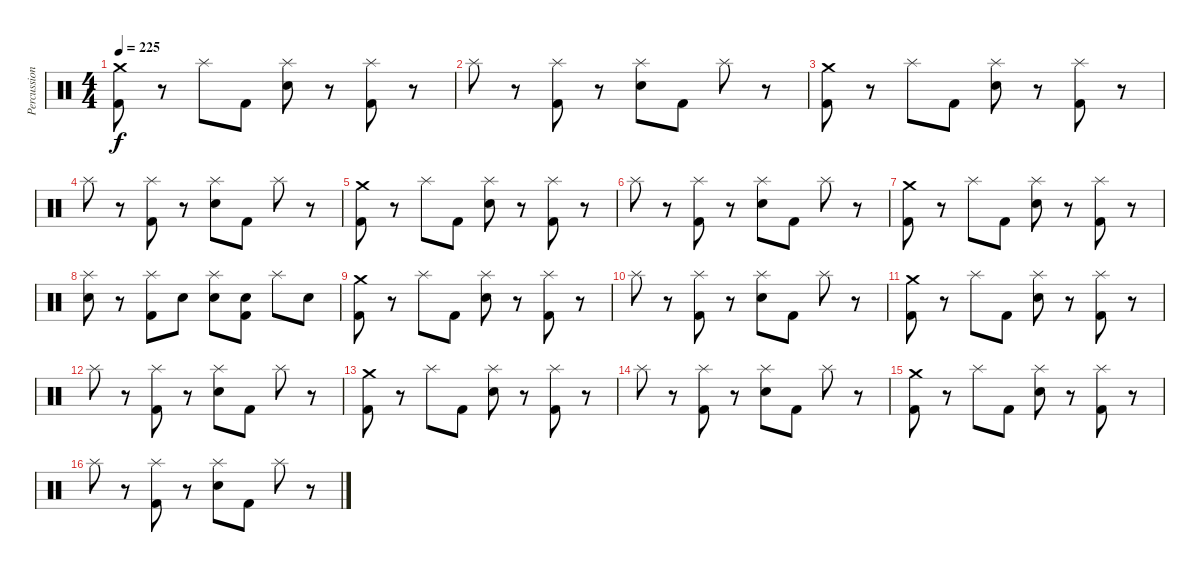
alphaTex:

\track ("Percussion" "Percussion") {instrument percussion}
\staff {score}
\articulation defaults
\ts (4 4)
\tempo 225
\clef neutral
\ks c
("Crash medium (hit)" "Kick (hit) 2").8{dy f} r.8 "Splash (hit)".8 "Kick (hit) 2".8 ("Splash (hit)" "Electric Snare (hit)").8 r.8 ("Splash (hit)" "Kick (hit) 2").8 r.8 |
"Splash (hit)".8 r.8 ("Splash (hit)" "Kick (hit) 2").8 r.8 ("Splash (hit)" "Electric Snare (hit)").8 "Kick (hit) 2".8 "Splash (hit)".8 r.8 |
("Crash medium (hit)" "Kick (hit) 2").8 r.8 "Splash (hit)".8 "Kick (hit) 2".8 ("Splash (hit)" "Electric Snare (hit)").8 r.8 ("Splash (hit)" "Kick (hit) 2").8 r.8 |
"Splash (hit)".8 r.8 ("Splash (hit)" "Kick (hit) 2").8 r.8 ("Splash (hit)" "Electric Snare (hit)").8 "Kick (hit) 2".8 "Splash (hit)".8 r.8 |
("Crash medium (hit)" "Kick (hit) 2").8 r.8 "Splash (hit)".8 "Kick (hit) 2".8 ("Splash (hit)" "Electric Snare (hit)").8 r.8 ("Splash (hit)" "Kick (hit) 2").8 r.8 |
"Splash (hit)".8 r.8 ("Splash (hit)" "Kick (hit) 2").8 r.8 ("Splash (hit)" "Electric Snare (hit)").8 "Kick (hit) 2".8 "Splash (hit)".8 r.8 |
("Crash medium (hit)" "Kick (hit) 2").8 r.8 "Splash (hit)".8 "Kick (hit) 2".8 ("Splash (hit)" "Electric Snare (hit)").8 r.8 ("Splash (hit)" "Kick (hit) 2").8 r.8 |
("Splash (hit)" "Electric Snare (hit)").8 r.8 ("Splash (hit)" "Kick (hit) 2").8 "Electric Snare (hit)".8 ("Splash (hit)" "Electric Snare (hit)").8 ("Electric Snare (hit)" "Kick (hit) 2").8 "Splash (hit)".8 "Electric Snare (hit)".8 |
("Crash medium (hit)" "Kick (hit) 2").8 r.8 "Splash (hit)".8 "Kick (hit) 2".8 ("Splash (hit)" "Electric Snare (hit)").8 r.8 ("Splash (hit)" "Kick (hit) 2").8 r.8 |
"Splash (hit)".8 r.8 ("Splash (hit)" "Kick (hit) 2").8 r.8 ("Splash (hit)" "Electric Snare (hit)").8 "Kick (hit) 2".8 "Splash (hit)".8 r.8 |
("Crash medium (hit)" "Kick (hit) 2").8 r.8 "Splash (hit)".8 "Kick (hit) 2".8 ("Splash (hit)" "Electric Snare (hit)").8 r.8 ("Splash (hit)" "Kick (hit) 2").8 r.8 |
"Splash (hit)".8 r.8 ("Splash (hit)" "Kick (hit) 2").8 r.8 ("Splash (hit)" "Electric Snare (hit)").8 "Kick (hit) 2".8 "Splash (hit)".8 r.8 |
("Crash medium (hit)" "Kick (hit) 2").8 r.8 "Splash (hit)".8 "Kick (hit) 2".8 ("Splash (hit)" "Electric Snare (hit)").8 r.8 ("Splash (hit)" "Kick (hit) 2").8 r.8 |
"Splash (hit)".8 r.8 ("Splash (hit)" "Kick (hit) 2").8 r.8 ("Splash (hit)" "Electric Snare (hit)").8 "Kick (hit) 2".8 "Splash (hit)".8 r.8 |
("Crash medium (hit)" "Kick (hit) 2").8 r.8 "Splash (hit)".8 "Kick (hit) 2".8 ("Splash (hit)" "Electric Snare (hit)").8 r.8 ("Splash (hit)" "Kick (hit) 2").8 r.8 |
"Splash (hit)".8 r.8 ("Splash (hit)" "Kick (hit) 2").8 r.8 ("Splash (hit)" "Electric Snare (hit)").8 "Kick (hit) 2".8 "Splash (hit)".8 r.8
